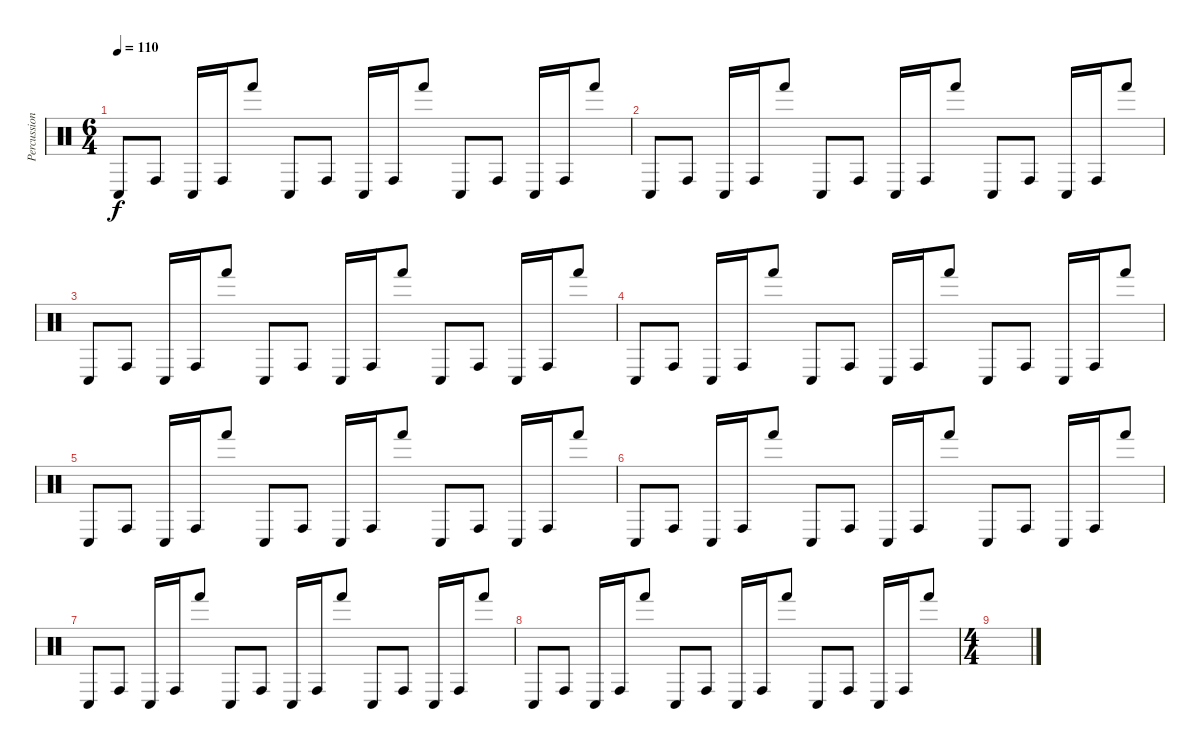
\track ("Percussion" "Percussion") {instrument percussion}
\staff {score}
\articulation defaults
\ts (6 4)
\tempo 110
\clef neutral
\ks c "Conga low (hit)".8{dy f} "Conga high (hit)".8 "Conga low (hit)".16 "Conga high (hit)".16 "Hand (hit)".8 "Conga low (hit)".8 "Conga high (hit)".8 "Conga low (hit)".16 "Conga high (hit)".16 "Hand (hit)".8 "Conga low (hit)".8 "Conga high (hit)".8 "Conga low (hit)".16 "Conga high (hit)".16 "Hand (hit)".8
|
"Conga low (hit)".8 "Conga high (hit)".8 "Conga low (hit)".16 "Conga high (hit)".16 "Hand (hit)".8 "Conga low (hit)".8 "Conga high (hit)".8 "Conga low (hit)".16 "Conga high (hit)".16 "Hand (hit)".8 "Conga low (hit)".8 "Conga high (hit)".8 "Conga low (hit)".16 "Conga high (hit)".16 "Hand (hit)".8 |
"Conga low (hit)".8 "Conga high (hit)".8 "Conga low (hit)".16 "Conga high (hit)".16 "Hand (hit)".8 "Conga low (hit)".8 "Conga high (hit)".8 "Conga low (hit)".16 "Conga high (hit)".16 "Hand (hit)".8 "Conga low (hit)".8 "Conga high (hit)".8 "Conga low (hit)".16 "Conga high (hit)".16 "Hand (hit)".8 |
"Conga low (hit)".8 "Conga high (hit)".8 "Conga low (hit)".16 "Conga high (hit)".16 "Hand (hit)".8 "Conga low (hit)".8 "Conga high (hit)".8 "Conga low (hit)".16 "Conga high (hit)".16 "Hand (hit)".8 "Conga low (hit)".8 "Conga high (hit)".8 "Conga low (hit)".16 "Conga high (hit)".16 "Hand (hit)".8 |
"Conga low (hit)".8 "Conga high (hit)".8 "Conga low (hit)".16 "Conga high (hit)".16 "Hand (hit)".8 "Conga low (hit)".8 "Conga high (hit)".8 "Conga low (hit)".16 "Conga high (hit)".16 "Hand (hit)".8 "Conga low (hit)".8 "Conga high (hit)".8 "Conga low (hit)".16 "Conga high (hit)".16 "Hand (hit)".8 |
"Conga low (hit)".8 "Conga high (hit)".8 "Conga low (hit)".16 "Conga high (hit)".16 "Hand (hit)".8 "Conga low (hit)".8 "Conga high (hit)".8 "Conga low (hit)".16 "Conga high (hit)".16 "Hand (hit)".8 "Conga low (hit)".8 "Conga high (hit)".8 "Conga low (hit)".16 "Conga high (hit)".16 "Hand (hit)".8 |
"Conga low (hit)".8 "Conga high (hit)".8 "Conga low (hit)".16 "Conga high (hit)".16 "Hand (hit)".8 "Conga low (hit)".8 "Conga high (hit)".8 "Conga low (hit)".16 "Conga high (hit)".16 "Hand (hit)".8 "Conga low (hit)".8 "Conga high (hit)".8 "Conga low (hit)".16 "Conga high (hit)".16 "Hand (hit)".8 |
"Conga low (hit)".8 "Conga high (hit)".8 "Conga low (hit)".16 "Conga high (hit)".16 "Hand (hit)".8 "Conga low (hit)".8 "Conga high (hit)".8 "Conga low (hit)".16 "Conga high (hit)".16 "Hand (hit)".8 "Conga low (hit)".8 "Conga high (hit)".8 "Conga low (hit)".16 "Conga high (hit)".16 "Hand (hit)".8 |
\ts (4 4)
